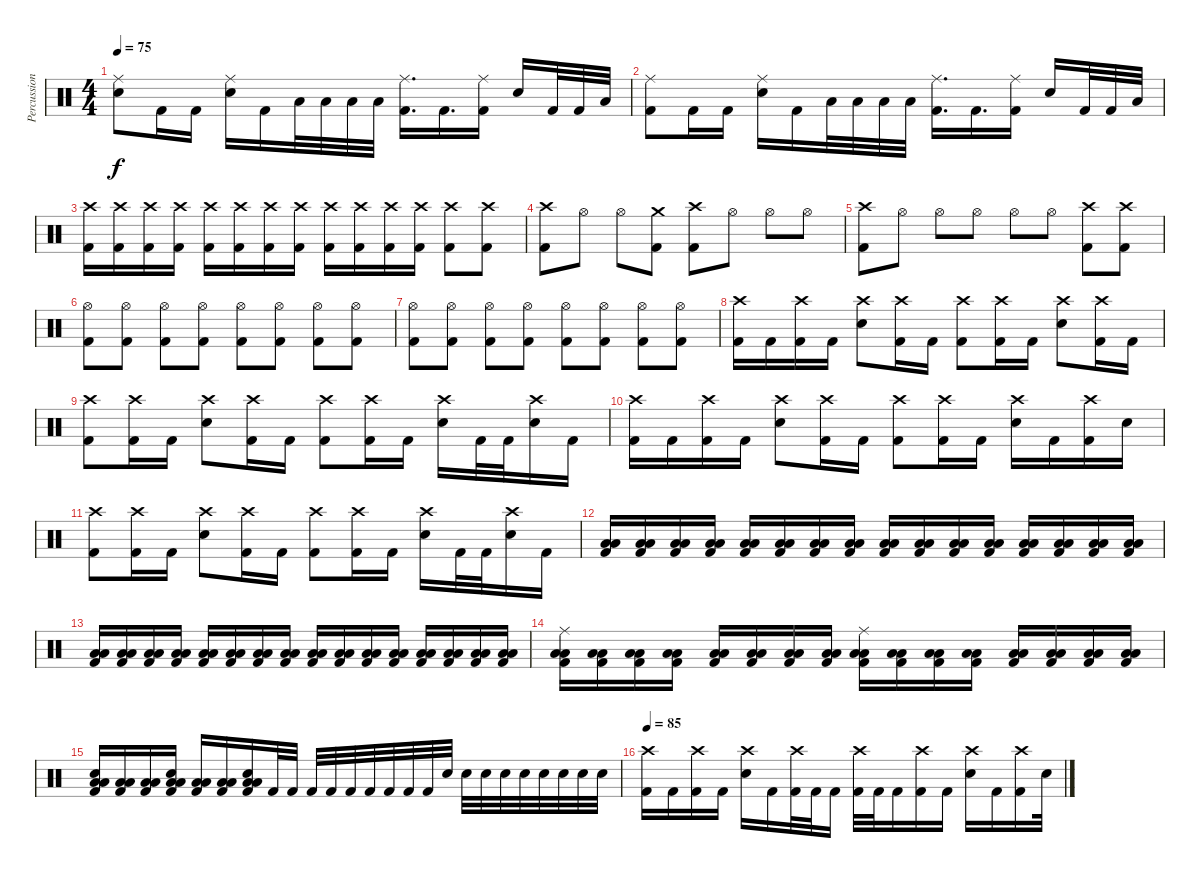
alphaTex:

\track ("Percussion" "Percussion") {instrument percussion}
\staff {score}
\articulation defaults
\ts (4 4)
\tempo 75
\clef neutral
\ks c
("Ride (middle)" "Snare (hit) 2").8{dy f} "Kick (hit) 2".16 "Kick (hit) 2".16 ("Ride (middle)" "Snare (hit) 2").16 "Kick (hit) 2".16 "Low Tom (hit)".32 "Low Tom (hit)".32 "Low Floor Tom (hit)".32 "Low Floor Tom (hit)".32 ("Ride (middle)" "Kick (hit) 2").16{d} "Kick (hit) 2".16{d} ("Ride (middle)" "Kick (hit) 2").16 "Snare (hit) 2".16 "Kick (hit) 2".32 "Kick (hit) 2".32 "Low Tom (hit)".32 |
("Ride (middle)" "Kick (hit) 2").8 "Kick (hit) 2".16 "Kick (hit) 2".16 ("Ride (middle)" "Snare (hit) 2").16 "Kick (hit) 2".16 "Low Tom (hit)".32 "Low Tom (hit)".32 "Low Floor Tom (hit)".32 "Low Floor Tom (hit)".32 ("Ride (middle)" "Kick (hit) 2").16{d} "Kick (hit) 2".16{d} ("Ride (middle)" "Kick (hit) 2").16 "Snare (hit) 2".16 "Kick (hit) 2".32 "Kick (hit) 2".32 "Low Tom (hit)".32 |
("Crash high (hit)" "Kick (hit) 2").16 ("Crash high (hit)" "Kick (hit) 2").16 ("Crash high (hit)" "Kick (hit) 2").16 ("Crash high (hit)" "Kick (hit) 2").16 ("Crash high (hit)" "Kick (hit) 2").16 ("Crash high (hit)" "Kick (hit) 2").16 ("Crash high (hit)" "Kick (hit) 2").16 ("Crash high (hit)" "Kick (hit) 2").16 ("Crash high (hit)" "Kick (hit) 2").16 ("Crash high (hit)" "Kick (hit) 2").16 ("Crash high (hit)" "Kick (hit) 2").16 ("Crash high (hit)" "Kick (hit) 2").16 ("Crash high (hit)" "Kick (hit) 2").8 ("Crash high (hit)" "Kick (hit) 2").8 |
("Crash high (hit)" "Kick (hit) 2").8 "Hi-Hat (open)".8 "Hi-Hat (open)".8 ("Crash medium (hit)" "Kick (hit) 2").8 ("Crash high (hit)" "Kick (hit) 2").8 "Hi-Hat (open)".8 "Hi-Hat (open)".8 "Hi-Hat (open)".8 |
("Crash high (hit)" "Kick (hit) 2").8 "Hi-Hat (open)".8 "Hi-Hat (open)".8 "Hi-Hat (open)".8 "Hi-Hat (open)".8 "Hi-Hat (open)".8 ("Crash high (hit)" "Kick (hit) 2").8 ("Crash high (hit)" "Kick (hit) 2").8 |
("Hi-Hat (open)" "Kick (hit) 2").8 ("Hi-Hat (open)" "Kick (hit) 2").8 ("Hi-Hat (open)" "Kick (hit) 2").8 ("Hi-Hat (open)" "Kick (hit) 2").8 ("Hi-Hat (open)" "Kick (hit) 2").8 ("Hi-Hat (open)" "Kick (hit) 2").8 ("Hi-Hat (open)" "Kick (hit) 2").8 ("Hi-Hat (open)" "Kick (hit) 2").8 |
("Hi-Hat (open)" "Kick (hit) 2").8 ("Hi-Hat (open)" "Kick (hit) 2").8 ("Hi-Hat (open)" "Kick (hit) 2").8 ("Hi-Hat (open)" "Kick (hit) 2").8 ("Hi-Hat (open)" "Kick (hit) 2").8 ("Hi-Hat (open)" "Kick (hit) 2").8 ("Hi-Hat (open)" "Kick (hit) 2").8 ("Hi-Hat (open)" "Kick (hit) 2").8 |
("Crash high (hit)" "Kick (hit) 2").16 "Kick (hit) 2".16 ("Crash high (hit)" "Kick (hit) 2").16 "Kick (hit) 2".16 ("Crash high (hit)" "Snare (hit) 2").8 ("Crash high (hit)" "Kick (hit) 2").16 "Kick (hit) 2".16 ("Crash high (hit)" "Kick (hit) 2").8 ("Crash high (hit)" "Kick (hit) 2").16 "Kick (hit) 2".16 ("Crash high (hit)" "Snare (hit) 2").8 ("Crash high (hit)" "Kick (hit) 2").16 "Kick (hit) 2".16 |
("Crash high (hit)" "Kick (hit) 2").8 ("Crash high (hit)" "Kick (hit) 2").16 "Kick (hit) 2".16 ("Crash high (hit)" "Snare (hit) 2").8 ("Crash high (hit)" "Kick (hit) 2").16 "Kick (hit) 2".16 ("Crash high (hit)" "Kick (hit) 2").8 ("Crash high (hit)" "Kick (hit) 2").16 "Kick (hit) 2".16 ("Crash high (hit)" "Snare (hit) 2").16 "Kick (hit) 2".32 "Kick (hit) 2".32 ("Crash high (hit)" "Snare (hit) 2").16 "Kick (hit) 2".16 |
("Crash high (hit)" "Kick (hit) 2").16 "Kick (hit) 2".16 ("Crash high (hit)" "Kick (hit) 2").16 "Kick (hit) 2".16 ("Crash high (hit)" "Snare (hit) 2").8 ("Crash high (hit)" "Kick (hit) 2").16 "Kick (hit) 2".16 ("Crash high (hit)" "Kick (hit) 2").8 ("Crash high (hit)" "Kick (hit) 2").16 "Kick (hit) 2".16 ("Crash high (hit)" "Snare (hit) 2").16 "Kick (hit) 2".16 ("Crash high (hit)" "Kick (hit) 2").16 "Snare (hit) 2".16 |
("Crash high (hit)" "Kick (hit) 2").8 ("Crash high (hit)" "Kick (hit) 2").16 "Kick (hit) 2".16 ("Crash high (hit)" "Snare (hit) 2").8 ("Crash high (hit)" "Kick (hit) 2").16 "Kick (hit) 2".16 ("Crash high (hit)" "Kick (hit) 2").8 ("Crash high (hit)" "Kick (hit) 2").16 "Kick (hit) 2".16 ("Crash high (hit)" "Snare (hit) 2").16 "Kick (hit) 2".32 "Kick (hit) 2".32 ("Crash high (hit)" "Snare (hit) 2").16 "Kick (hit) 2".16 |
("Low Floor Tom (hit)" "Low Tom (hit)" "Kick (hit) 2").16 ("Low Floor Tom (hit)" "Low Tom (hit)" "Kick (hit) 2").16 ("Low Floor Tom (hit)" "Low Tom (hit)" "Kick (hit) 2").16 ("Low Floor Tom (hit)" "Low Tom (hit)" "Kick (hit) 2").16 ("Low Floor Tom (hit)" "Low Tom (hit)" "Kick (hit) 2").16 ("Low Floor Tom (hit)" "Low Tom (hit)" "Kick (hit) 2").16 ("Low Floor Tom (hit)" "Low Tom (hit)" "Kick (hit) 2").16 ("Low Floor Tom (hit)" "Low Tom (hit)" "Kick (hit) 2").16 ("Low Floor Tom (hit)" "Low Tom (hit)" "Kick (hit) 2").16 ("Low Floor Tom (hit)" "Low Tom (hit)" "Kick (hit) 2").16 ("Low Floor Tom (hit)" "Low Tom (hit)" "Kick (hit) 2").16 ("Low Floor Tom (hit)" "Low Tom (hit)" "Kick (hit) 2").16 ("Low Floor Tom (hit)" "Low Tom (hit)" "Kick (hit) 2").16 ("Low Floor Tom (hit)" "Low Tom (hit)" "Kick (hit) 2").16 ("Low Floor Tom (hit)" "Low Tom (hit)" "Kick (hit) 2").16 ("Low Floor Tom (hit)" "Low Tom (hit)" "Kick (hit) 2").16 |
("Low Floor Tom (hit)" "Low Tom (hit)" "Kick (hit) 2").16 ("Low Floor Tom (hit)" "Low Tom (hit)" "Kick (hit) 2").16 ("Low Floor Tom (hit)" "Low Tom (hit)" "Kick (hit) 2").16 ("Low Floor Tom (hit)" "Low Tom (hit)" "Kick (hit) 2").16 ("Low Floor Tom (hit)" "Low Tom (hit)" "Kick (hit) 2").16 ("Low Floor Tom (hit)" "Low Tom (hit)" "Kick (hit) 2").16 ("Low Floor Tom (hit)" "Low Tom (hit)" "Kick (hit) 2").16 ("Low Floor Tom (hit)" "Low Tom (hit)" "Kick (hit) 2").16 ("Low Floor Tom (hit)" "Low Tom (hit)" "Kick (hit) 2").16 ("Low Floor Tom (hit)" "Low Tom (hit)" "Kick (hit) 2").16 ("Low Floor Tom (hit)" "Low Tom (hit)" "Kick (hit) 2").16 ("Low Floor Tom (hit)" "Low Tom (hit)" "Kick (hit) 2").16 ("Low Floor Tom (hit)" "Low Tom (hit)" "Kick (hit) 2").16 ("Low Floor Tom (hit)" "Low Tom (hit)" "Kick (hit) 2").16 ("Low Floor Tom (hit)" "Low Tom (hit)" "Kick (hit) 2").16 ("Low Floor Tom (hit)" "Low Tom (hit)" "Kick (hit) 2").16 |
("Ride (middle)" "Low Floor Tom (hit)" "Low Tom (hit)" "Kick (hit) 2").16 ("Low Floor Tom (hit)" "Low Tom (hit)" "Kick (hit) 2").16 ("Low Floor Tom (hit)" "Low Tom (hit)" "Kick (hit) 2").16 ("Low Floor Tom (hit)" "Low Tom (hit)" "Kick (hit) 2").16 ("Low Floor Tom (hit)" "Low Tom (hit)" "Kick (hit) 2").16 ("Low Floor Tom (hit)" "Low Tom (hit)" "Kick (hit) 2").16 ("Low Floor Tom (hit)" "Low Tom (hit)" "Kick (hit) 2").16 ("Low Floor Tom (hit)" "Low Tom (hit)" "Kick (hit) 2").16 ("Ride (middle)" "Low Floor Tom (hit)" "Low Tom (hit)" "Kick (hit) 2").16 ("Low Floor Tom (hit)" "Low Tom (hit)" "Kick (hit) 2").16 ("Low Floor Tom (hit)" "Low Tom (hit)" "Kick (hit) 2").16 ("Low Floor Tom (hit)" "Low Tom (hit)" "Kick (hit) 2").16 ("Low Floor Tom (hit)" "Low Tom (hit)" "Kick (hit) 2").16 ("Low Floor Tom (hit)" "Low Tom (hit)" "Kick (hit) 2").16 ("Low Floor Tom (hit)" "Low Tom (hit)" "Kick (hit) 2").16 ("Low Floor Tom (hit)" "Low Tom (hit)" "Kick (hit) 2").16 |
("Low Floor Tom (hit)" "Low Tom (hit)" "Snare (hit) 2" "Kick (hit) 2").16 ("Low Floor Tom (hit)" "Low Tom (hit)" "Kick (hit) 2").16 ("Low Floor Tom (hit)" "Low Tom (hit)" "Kick (hit) 2").16 ("Low Floor Tom (hit)" "Low Tom (hit)" "Snare (hit) 2" "Kick (hit) 2").16 ("Low Floor Tom (hit)" "Low Tom (hit)" "Kick (hit) 2").16 ("Low Floor Tom (hit)" "Low Tom (hit)" "Kick (hit) 2").16 ("Low Floor Tom (hit)" "Low Tom (hit)" "Snare (hit) 2" "Kick (hit) 2").16 "Kick (hit) 2".32 "Kick (hit) 2".32 "Kick (hit) 2".32 "Kick (hit) 2".32 "Kick (hit) 2".32 "Kick (hit) 2".32 "Kick (hit) 2".32 "Kick (hit) 2".32 "Kick (hit) 2".32 "Snare (hit) 2".32 "Snare (hit) 2".32 "Snare (hit) 2".32 "Snare (hit) 2".32 "Snare (hit) 2".32 "Snare (hit) 2".32 "Snare (hit) 2".32 "Snare (hit) 2".32 "Snare (hit) 2".32 |
\tempo 85
("Crash high (hit)" "Kick (hit) 2").16 "Kick (hit) 2".16 ("Crash high (hit)" "Kick (hit) 2").16 "Kick (hit) 2".16 ("Crash high (hit)" "Snare (hit) 2").16 "Kick (hit) 2".16 ("Crash high (hit)" "Kick (hit) 2").32 "Kick (hit) 2".32 "Kick (hit) 2".16 ("Crash high (hit)" "Kick (hit) 2").32 "Kick (hit) 2".32 "Kick (hit) 2".16 ("Crash high (hit)" "Kick (hit) 2").16 "Kick (hit) 2".16 ("Crash high (hit)" "Snare (hit) 2").16 "Kick (hit) 2".16 ("Crash high (hit)" "Kick (hit) 2").16 "Snare (hit) 2".32
